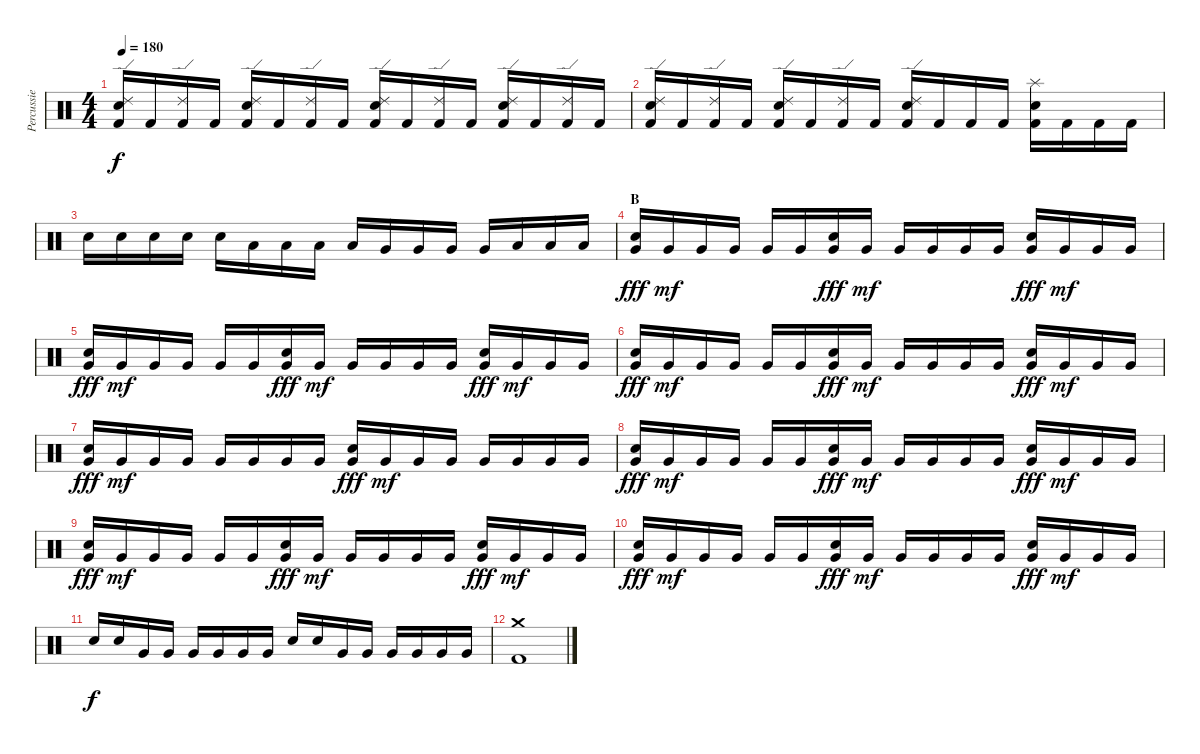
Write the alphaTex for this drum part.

\track ("Percussie" "Percussie") {instrument percussion}
\staff {score}
\articulation defaults
\ts (4 4)
\tempo 180
\clef neutral
\ks c
("Ride (edge) 2" "Electric Snare (hit)" "Kick (hit) 2").16{dy f} "Kick (hit) 2".16 ("Ride (edge) 2" "Kick (hit) 2").16 "Kick (hit) 2".16 ("Ride (edge) 2" "Electric Snare (hit)" "Kick (hit) 2").16 "Kick (hit) 2".16 ("Ride (edge) 2" "Kick (hit) 2").16 "Kick (hit) 2".16 ("Ride (edge) 2" "Electric Snare (hit)" "Kick (hit) 2").16 "Kick (hit) 2".16 ("Ride (edge) 2" "Kick (hit) 2").16 "Kick (hit) 2".16 ("Ride (edge) 2" "Electric Snare (hit)" "Kick (hit) 2").16 "Kick (hit) 2".16 ("Ride (edge) 2" "Kick (hit) 2").16 "Kick (hit) 2".16 |
("Ride (edge) 2" "Electric Snare (hit)" "Kick (hit) 2").16 "Kick (hit) 2".16 ("Ride (edge) 2" "Kick (hit) 2").16 "Kick (hit) 2".16 ("Ride (edge) 2" "Electric Snare (hit)" "Kick (hit) 2").16 "Kick (hit) 2".16 ("Ride (edge) 2" "Kick (hit) 2").16 "Kick (hit) 2".16 ("Ride (edge) 2" "Electric Snare (hit)" "Kick (hit) 2").16 "Kick (hit) 2".16 "Kick (hit) 2".16 "Kick (hit) 2".16 ("Splash (hit)" "Electric Snare (hit)" "Kick (hit) 2").16 "Kick (hit) 2".16 "Kick (hit) 2".16 "Kick (hit) 2".16 |
"Electric Snare (hit)".16 "Electric Snare (hit)".16 "Electric Snare (hit)".16 "Electric Snare (hit)".16 "Electric Snare (hit)".16 "Low Tom (hit)".16 "Low Tom (hit)".16 "Low Tom (hit)".16 "Low Tom (hit)".16 "Very Low Tom (hit)".16 "Very Low Tom (hit)".16 "Very Low Tom (hit)".16 "Very Low Tom (hit)".16 "Low Floor Tom (hit)".16 "Low Floor Tom (hit)".16 "Low Floor Tom (hit)".16 |
\section ("" "B")
("Electric Snare (hit)" "Very Low Tom (hit)").16{dy fff} "Very Low Tom (hit)".16{dy mf} "Very Low Tom (hit)".16 "Very Low Tom (hit)".16 "Very Low Tom (hit)".16 "Very Low Tom (hit)".16 ("Electric Snare (hit)" "Very Low Tom (hit)").16{dy fff} "Very Low Tom (hit)".16{dy mf} "Very Low Tom (hit)".16 "Very Low Tom (hit)".16 "Very Low Tom (hit)".16 "Very Low Tom (hit)".16 ("Electric Snare (hit)" "Very Low Tom (hit)").16{dy fff} "Very Low Tom (hit)".16{dy mf} "Very Low Tom (hit)".16 "Very Low Tom (hit)".16 |
("Electric Snare (hit)" "Very Low Tom (hit)").16{dy fff} "Very Low Tom (hit)".16{dy mf} "Very Low Tom (hit)".16 "Very Low Tom (hit)".16 "Very Low Tom (hit)".16 "Very Low Tom (hit)".16 ("Electric Snare (hit)" "Very Low Tom (hit)").16{dy fff} "Very Low Tom (hit)".16{dy mf} "Very Low Tom (hit)".16 "Very Low Tom (hit)".16 "Very Low Tom (hit)".16 "Very Low Tom (hit)".16 ("Electric Snare (hit)" "Very Low Tom (hit)").16{dy fff} "Very Low Tom (hit)".16{dy mf} "Very Low Tom (hit)".16 "Very Low Tom (hit)".16 |
("Electric Snare (hit)" "Very Low Tom (hit)").16{dy fff} "Very Low Tom (hit)".16{dy mf} "Very Low Tom (hit)".16 "Very Low Tom (hit)".16 "Very Low Tom (hit)".16 "Very Low Tom (hit)".16 ("Electric Snare (hit)" "Very Low Tom (hit)").16{dy fff} "Very Low Tom (hit)".16{dy mf} "Very Low Tom (hit)".16 "Very Low Tom (hit)".16 "Very Low Tom (hit)".16 "Very Low Tom (hit)".16 ("Electric Snare (hit)" "Very Low Tom (hit)").16{dy fff} "Very Low Tom (hit)".16{dy mf} "Very Low Tom (hit)".16 "Very Low Tom (hit)".16 |
("Electric Snare (hit)" "Very Low Tom (hit)").16{dy fff} "Very Low Tom (hit)".16{dy mf} "Very Low Tom (hit)".16 "Very Low Tom (hit)".16 "Very Low Tom (hit)".16 "Very Low Tom (hit)".16 "Very Low Tom (hit)".16 "Very Low Tom (hit)".16 ("Electric Snare (hit)" "Very Low Tom (hit)").16{dy fff} "Very Low Tom (hit)".16{dy mf} "Very Low Tom (hit)".16 "Very Low Tom (hit)".16 "Very Low Tom (hit)".16 "Very Low Tom (hit)".16 "Very Low Tom (hit)".16 "Very Low Tom (hit)".16 |
("Electric Snare (hit)" "Very Low Tom (hit)").16{dy fff} "Very Low Tom (hit)".16{dy mf} "Very Low Tom (hit)".16 "Very Low Tom (hit)".16 "Very Low Tom (hit)".16 "Very Low Tom (hit)".16 ("Electric Snare (hit)" "Very Low Tom (hit)").16{dy fff} "Very Low Tom (hit)".16{dy mf} "Very Low Tom (hit)".16 "Very Low Tom (hit)".16 "Very Low Tom (hit)".16 "Very Low Tom (hit)".16 ("Electric Snare (hit)" "Very Low Tom (hit)").16{dy fff} "Very Low Tom (hit)".16{dy mf} "Very Low Tom (hit)".16 "Very Low Tom (hit)".16 |
("Electric Snare (hit)" "Very Low Tom (hit)").16{dy fff} "Very Low Tom (hit)".16{dy mf} "Very Low Tom (hit)".16 "Very Low Tom (hit)".16 "Very Low Tom (hit)".16 "Very Low Tom (hit)".16 ("Electric Snare (hit)" "Very Low Tom (hit)").16{dy fff} "Very Low Tom (hit)".16{dy mf} "Very Low Tom (hit)".16 "Very Low Tom (hit)".16 "Very Low Tom (hit)".16 "Very Low Tom (hit)".16 ("Electric Snare (hit)" "Very Low Tom (hit)").16{dy fff} "Very Low Tom (hit)".16{dy mf} "Very Low Tom (hit)".16 "Very Low Tom (hit)".16 |
("Electric Snare (hit)" "Very Low Tom (hit)").16{dy fff} "Very Low Tom (hit)".16{dy mf} "Very Low Tom (hit)".16 "Very Low Tom (hit)".16 "Very Low Tom (hit)".16 "Very Low Tom (hit)".16 ("Electric Snare (hit)" "Very Low Tom (hit)").16{dy fff} "Very Low Tom (hit)".16{dy mf} "Very Low Tom (hit)".16 "Very Low Tom (hit)".16 "Very Low Tom (hit)".16 "Very Low Tom (hit)".16 ("Electric Snare (hit)" "Very Low Tom (hit)").16{dy fff} "Very Low Tom (hit)".16{dy mf} "Very Low Tom (hit)".16 "Very Low Tom (hit)".16 |
"Electric Snare (hit)".16{dy f} "Electric Snare (hit)".16 "Very Low Tom (hit)".16 "Very Low Tom (hit)".16 "Very Low Tom (hit)".16 "Very Low Tom (hit)".16 "Very Low Tom (hit)".16 "Very Low Tom (hit)".16 "Electric Snare (hit)".16 "Electric Snare (hit)".16 "Very Low Tom (hit)".16 "Very Low Tom (hit)".16 "Very Low Tom (hit)".16 "Very Low Tom (hit)".16 "Very Low Tom (hit)".16 "Very Low Tom (hit)".16 |
("Crash medium (hit)" "Kick (hit) 2").1
